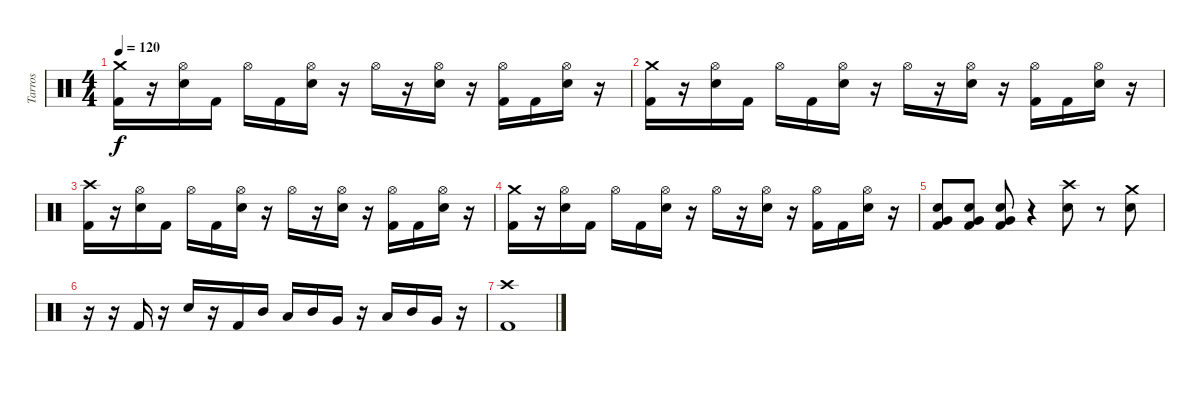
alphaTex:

\track ("Tarros" "Tarros") {instrument percussion}
\staff {score}
\articulation defaults
\ts (4 4)
\tempo 120
\clef neutral
\ks c
("Crash medium (hit)" "Kick (hit) 2").16{dy f} r.16 ("Hi-Hat (open)" "Electric Snare (hit)").16 "Kick (hit) 2".16 "Hi-Hat (open)".16 "Kick (hit) 2".16 ("Hi-Hat (open)" "Electric Snare (hit)").16 r.16 "Hi-Hat (open)".16 r.16 ("Hi-Hat (open)" "Electric Snare (hit)").16 r.16 ("Hi-Hat (open)" "Kick (hit) 2").16 "Kick (hit) 2".16 ("Hi-Hat (open)" "Electric Snare (hit)").16 r.16 |
("Crash medium (hit)" "Kick (hit) 2").16 r.16 ("Hi-Hat (open)" "Electric Snare (hit)").16 "Kick (hit) 2".16 "Hi-Hat (open)".16 "Kick (hit) 2".16 ("Hi-Hat (open)" "Electric Snare (hit)").16 r.16 "Hi-Hat (open)".16 r.16 ("Hi-Hat (open)" "Electric Snare (hit)").16 r.16 ("Hi-Hat (open)" "Kick (hit) 2").16 "Kick (hit) 2".16 ("Hi-Hat (open)" "Electric Snare (hit)").16 r.16 |
("Crash high (hit)" "Kick (hit) 2").16 r.16 ("Hi-Hat (open)" "Electric Snare (hit)").16 "Kick (hit) 2".16 "Hi-Hat (open)".16 "Kick (hit) 2".16 ("Hi-Hat (open)" "Electric Snare (hit)").16 r.16 "Hi-Hat (open)".16 r.16 ("Hi-Hat (open)" "Electric Snare (hit)").16 r.16 ("Hi-Hat (open)" "Kick (hit) 2").16 "Kick (hit) 2".16 ("Hi-Hat (open)" "Electric Snare (hit)").16 r.16 |
("Crash medium (hit)" "Kick (hit) 2").16 r.16 ("Hi-Hat (open)" "Electric Snare (hit)").16 "Kick (hit) 2".16 "Hi-Hat (open)".16 "Kick (hit) 2".16 ("Hi-Hat (open)" "Electric Snare (hit)").16 r.16 "Hi-Hat (open)".16 r.16 ("Hi-Hat (open)" "Electric Snare (hit)").16 r.16 ("Hi-Hat (open)" "Kick (hit) 2").16 "Kick (hit) 2".16 ("Hi-Hat (open)" "Electric Snare (hit)").16 r.16 |
("Very Low Tom (hit)" "Electric Snare (hit)" "Kick (hit) 2").8 ("Very Low Tom (hit)" "Electric Snare (hit)" "Kick (hit) 2").8 ("Very Low Tom (hit)" "Electric Snare (hit)" "Kick (hit) 2").8 r.4 ("Crash high (hit)" "Electric Snare (hit)").8 r.8 ("Crash medium (hit)" "Electric Snare (hit)").8 |
r.16 r.16 "Kick (hit) 2".16 r.16 "Electric Snare (hit)".16 r.16 "Kick (hit) 2".16 "Mid Tom (hit)".16 "Low Tom (hit)".16 "Mid Tom (hit)".16 "Very Low Tom (hit)".16 r.16 "Low Tom (hit)".16 "Mid Tom (hit)".16 "Very Low Tom (hit)".16 r.16 |
("Crash high (hit)" "Kick (hit) 2").1
